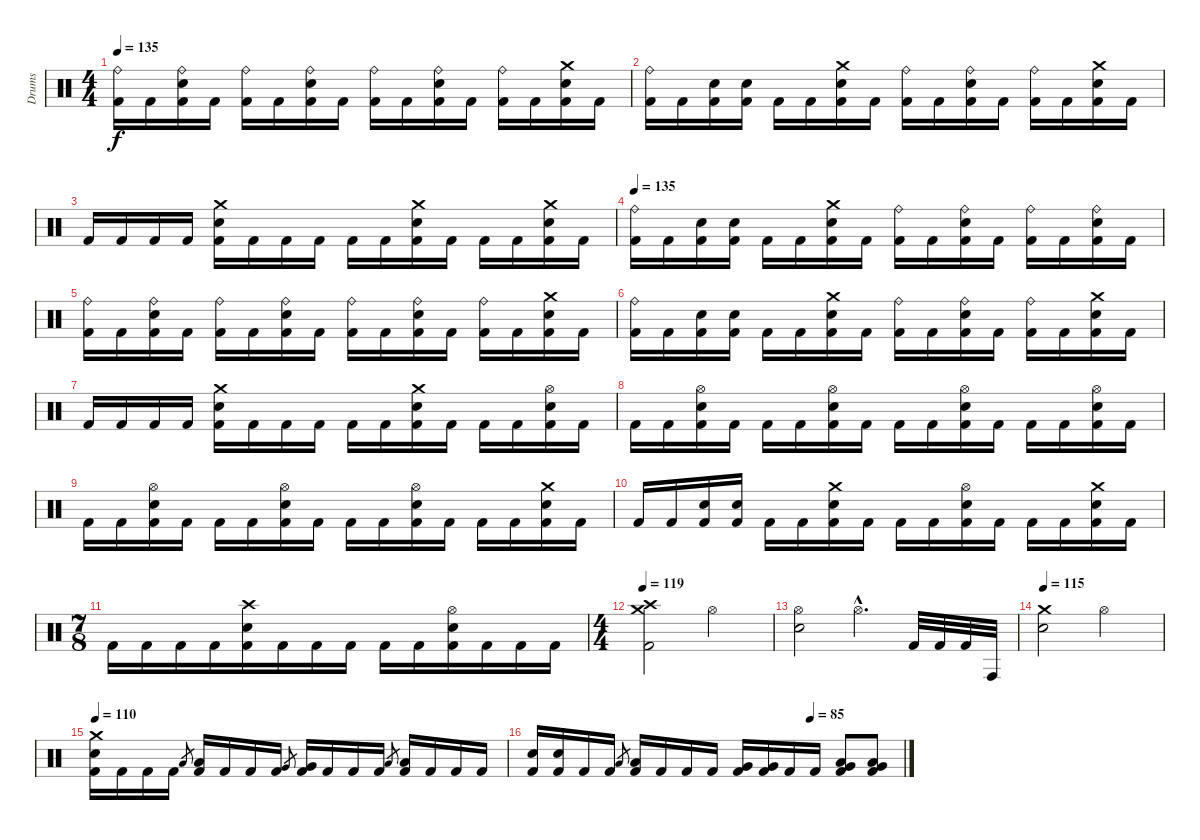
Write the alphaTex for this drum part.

\track ("Drums" "Drums") {instrument percussion}
\staff {score}
\articulation defaults
\ts (4 4)
\tempo 135
\clef neutral
\ks c
("Ride (bell)" "Kick (hit) 2").16{dy f} "Kick (hit) 2".16 ("Ride (bell)" "Snare (hit) 2" "Kick (hit) 2").16 "Kick (hit) 2".16 ("Ride (bell)" "Kick (hit) 2").16 "Kick (hit) 2".16 ("Ride (bell)" "Snare (hit) 2" "Kick (hit) 2").16 "Kick (hit) 2".16 ("Ride (bell)" "Kick (hit) 2").16 "Kick (hit) 2".16 ("Ride (bell)" "Snare (hit) 2" "Kick (hit) 2").16 "Kick (hit) 2".16 ("Ride (bell)" "Kick (hit) 2").16 "Kick (hit) 2".16 ("Crash medium (hit)" "Snare (hit) 2" "Kick (hit) 2").16 "Kick (hit) 2".16 |
("Ride (bell)" "Kick (hit) 2").16 "Kick (hit) 2".16 ("Snare (hit) 2" "Kick (hit) 2").16 ("Snare (hit) 2" "Kick (hit) 2").16 "Kick (hit) 2".16 "Kick (hit) 2".16 ("Crash medium (hit)" "Snare (hit) 2" "Kick (hit) 2").16 "Kick (hit) 2".16 ("Ride (bell)" "Kick (hit) 2").16 "Kick (hit) 2".16 ("Ride (bell)" "Snare (hit) 2" "Kick (hit) 2").16 "Kick (hit) 2".16 ("Ride (bell)" "Kick (hit) 2").16 "Kick (hit) 2".16 ("Crash medium (hit)" "Snare (hit) 2" "Kick (hit) 2").16 "Kick (hit) 2".16 |
"Kick (hit) 2".16 "Kick (hit) 2".16 "Kick (hit) 2".16 "Kick (hit) 2".16 ("Crash medium (hit)" "Snare (hit) 2" "Kick (hit) 2").16 "Kick (hit) 2".16 "Kick (hit) 2".16 "Kick (hit) 2".16 "Kick (hit) 2".16 "Kick (hit) 2".16 ("Crash medium (hit)" "Snare (hit) 2" "Kick (hit) 2").16 "Kick (hit) 2".16 "Kick (hit) 2".16 "Kick (hit) 2".16 ("Crash medium (hit)" "Snare (hit) 2" "Kick (hit) 2").16 "Kick (hit) 2".16 |
\tempo 135
("Ride (bell)" "Kick (hit) 2").16 "Kick (hit) 2".16 ("Snare (hit) 2" "Kick (hit) 2").16 ("Snare (hit) 2" "Kick (hit) 2").16 "Kick (hit) 2".16 "Kick (hit) 2".16 ("Crash medium (hit)" "Snare (hit) 2" "Kick (hit) 2").16 "Kick (hit) 2".16 ("Ride (bell)" "Kick (hit) 2").16 "Kick (hit) 2".16 ("Ride (bell)" "Snare (hit) 2" "Kick (hit) 2").16 "Kick (hit) 2".16 ("Ride (bell)" "Kick (hit) 2").16 "Kick (hit) 2".16 ("Ride (bell)" "Snare (hit) 2" "Kick (hit) 2").16 "Kick (hit) 2".16 |
("Ride (bell)" "Kick (hit) 2").16 "Kick (hit) 2".16 ("Ride (bell)" "Snare (hit) 2" "Kick (hit) 2").16 "Kick (hit) 2".16 ("Ride (bell)" "Kick (hit) 2").16 "Kick (hit) 2".16 ("Ride (bell)" "Snare (hit) 2" "Kick (hit) 2").16 "Kick (hit) 2".16 ("Ride (bell)" "Kick (hit) 2").16 "Kick (hit) 2".16 ("Ride (bell)" "Snare (hit) 2" "Kick (hit) 2").16 "Kick (hit) 2".16 ("Ride (bell)" "Kick (hit) 2").16 "Kick (hit) 2".16 ("Crash medium (hit)" "Snare (hit) 2" "Kick (hit) 2").16 "Kick (hit) 2".16 |
("Ride (bell)" "Kick (hit) 2").16 "Kick (hit) 2".16 ("Snare (hit) 2" "Kick (hit) 2").16 ("Snare (hit) 2" "Kick (hit) 2").16 "Kick (hit) 2".16 "Kick (hit) 2".16 ("Crash medium (hit)" "Snare (hit) 2" "Kick (hit) 2").16 "Kick (hit) 2".16 ("Ride (bell)" "Kick (hit) 2").16 "Kick (hit) 2".16 ("Ride (bell)" "Snare (hit) 2" "Kick (hit) 2").16 "Kick (hit) 2".16 ("Ride (bell)" "Kick (hit) 2").16 "Kick (hit) 2".16 ("Crash medium (hit)" "Snare (hit) 2" "Kick (hit) 2").16 "Kick (hit) 2".16 |
"Kick (hit) 2".16 "Kick (hit) 2".16 "Kick (hit) 2".16 "Kick (hit) 2".16 ("Crash medium (hit)" "Snare (hit) 2" "Kick (hit) 2").16 "Kick (hit) 2".16 "Kick (hit) 2".16 "Kick (hit) 2".16 "Kick (hit) 2".16 "Kick (hit) 2".16 ("Crash medium (hit)" "Snare (hit) 2" "Kick (hit) 2").16 "Kick (hit) 2".16 "Kick (hit) 2".16 "Kick (hit) 2".16 ("Hi-Hat (open)" "Snare (hit) 2" "Kick (hit) 2").16 "Kick (hit) 2".16 |
"Kick (hit) 2".16 "Kick (hit) 2".16 ("Hi-Hat (open)" "Snare (hit) 2" "Kick (hit) 2").16 "Kick (hit) 2".16 "Kick (hit) 2".16 "Kick (hit) 2".16 ("Hi-Hat (open)" "Snare (hit) 2" "Kick (hit) 2").16 "Kick (hit) 2".16 "Kick (hit) 2".16 "Kick (hit) 2".16 ("Hi-Hat (open)" "Snare (hit) 2" "Kick (hit) 2").16 "Kick (hit) 2".16 "Kick (hit) 2".16 "Kick (hit) 2".16 ("Hi-Hat (open)" "Snare (hit) 2" "Kick (hit) 2").16 "Kick (hit) 2".16 |
"Kick (hit) 2".16 "Kick (hit) 2".16 ("Hi-Hat (open)" "Snare (hit) 2" "Kick (hit) 2").16 "Kick (hit) 2".16 "Kick (hit) 2".16 "Kick (hit) 2".16 ("Hi-Hat (open)" "Snare (hit) 2" "Kick (hit) 2").16 "Kick (hit) 2".16 "Kick (hit) 2".16 "Kick (hit) 2".16 ("Hi-Hat (open)" "Snare (hit) 2" "Kick (hit) 2").16 "Kick (hit) 2".16 "Kick (hit) 2".16 "Kick (hit) 2".16 ("Crash medium (hit)" "Snare (hit) 2" "Kick (hit) 2").16 "Kick (hit) 2".16 |
"Kick (hit) 2".16 "Kick (hit) 2".16 ("Snare (hit) 2" "Kick (hit) 2").16 ("Snare (hit) 2" "Kick (hit) 2").16 "Kick (hit) 2".16 "Kick (hit) 2".16 ("Crash medium (hit)" "Snare (hit) 2" "Kick (hit) 2").16 "Kick (hit) 2".16 "Kick (hit) 2".16 "Kick (hit) 2".16 ("Hi-Hat (open)" "Snare (hit) 2" "Kick (hit) 2").16 "Kick (hit) 2".16 "Kick (hit) 2".16 "Kick (hit) 2".16 ("Crash medium (hit)" "Snare (hit) 2" "Kick (hit) 2").16 "Kick (hit) 2".16 |
\ts (7 8)
"Kick (hit) 2".16 "Kick (hit) 2".16 "Kick (hit) 2".16 "Kick (hit) 2".16 ("Crash high (hit)" "Snare (hit) 2" "Kick (hit) 2").16 "Kick (hit) 2".16 "Kick (hit) 2".16 "Kick (hit) 2".16 "Kick (hit) 2".16 "Kick (hit) 2".16 ("Hi-Hat (open)" "Snare (hit) 2" "Kick (hit) 2").16 "Kick (hit) 2".16 "Kick (hit) 2".16 "Kick (hit) 2".16 |
\ts (4 4)
\tempo 119
("Crash high (hit)" "Crash medium (hit)" "Kick (hit) 2").2 "Hi-Hat (open)".2 |
("Snare (hit) 2" "Hi-Hat (open)").2 "Hi-Hat (open)"{hac}.4{d} "Kick (hit) 2".32 "Kick (hit) 2".32 "Kick (hit) 2".32 "Conga high (hit)".32 |
\tempo 115
("Crash medium (hit)" "Snare (hit) 2").2 "Hi-Hat (open)".2 |
\tempo 110
("Crash medium (hit)" "Snare (hit) 2" "Kick (hit) 2").16 "Kick (hit) 2".16 "Kick (hit) 2".16 "Kick (hit) 2".16 "Low Tom (hit)".8{gr} ("Low Tom (hit)" "Kick (hit) 2").16 "Kick (hit) 2".16 "Kick (hit) 2".16 "Kick (hit) 2".16 "Very Low Tom (hit)".8{gr} ("Very Low Tom (hit)" "Kick (hit) 2").16 "Kick (hit) 2".16 "Kick (hit) 2".16 "Kick (hit) 2".16 "Low Floor Tom (hit)".8{gr} ("Low Floor Tom (hit)" "Kick (hit) 2").16 "Kick (hit) 2".16 "Kick (hit) 2".16 "Kick (hit) 2".16 |
\tempo (85 0.75)
("Snare (hit) 2" "Kick (hit) 2").16 ("Snare (hit) 2" "Kick (hit) 2").16 "Kick (hit) 2".16 "Kick (hit) 2".16 "Low Tom (hit)".8{gr} ("Low Tom (hit)" "Kick (hit) 2").16 "Kick (hit) 2".16 "Kick (hit) 2".16 "Kick (hit) 2".16 ("Very Low Tom (hit)" "Kick (hit) 2").16 ("Very Low Tom (hit)" "Kick (hit) 2").16 "Kick (hit) 2".16 "Kick (hit) 2".16 ("Low Tom (hit)" "Very Low Tom (hit)" "Kick (hit) 2").8 ("Low Tom (hit)" "Very Low Tom (hit)" "Kick (hit) 2").8
